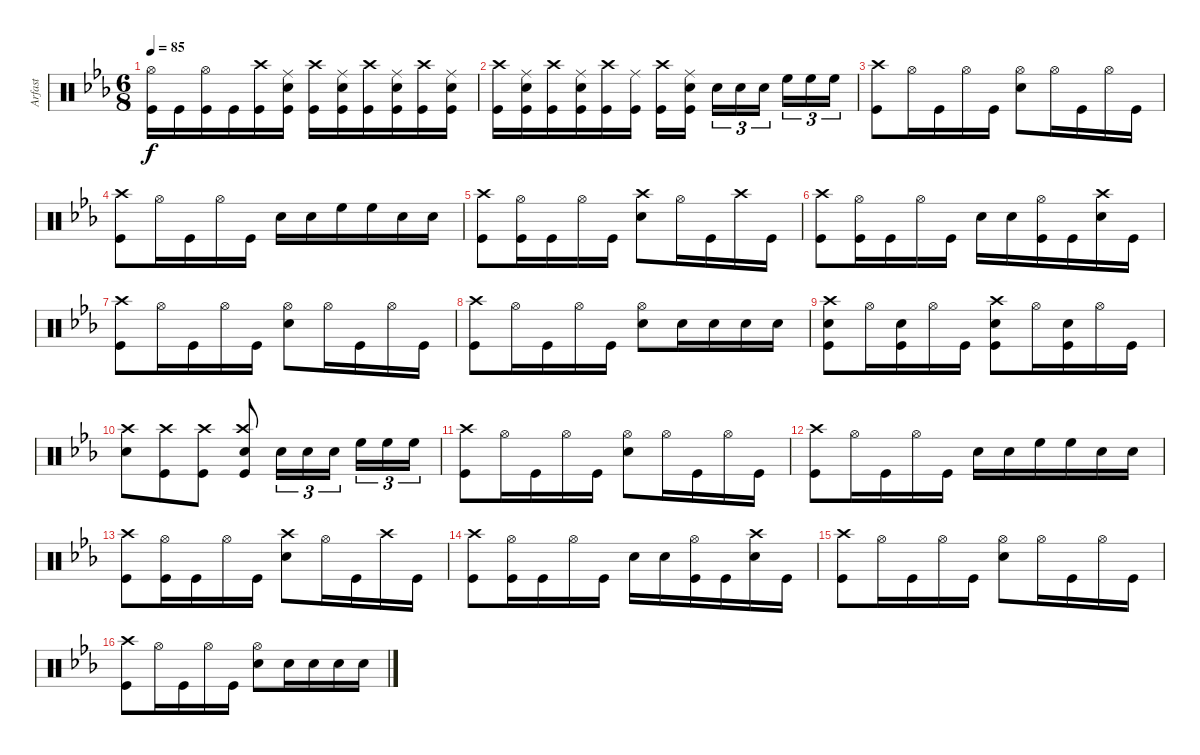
\track ("Arfast" "Arfast") {instrument percussion}
\staff {score}
\articulation defaults
\ts (6 8)
\tempo 85
\clef neutral
\ks cminor
("Hi-Hat (open)" "Kick (hit)").16{dy f} "Kick (hit)".16 ("Hi-Hat (open)" "Kick (hit)").16 "Kick (hit)".16 ("Crash high (hit)" "Kick (hit)").16 ("Ride (middle)" "Snare (hit) 2" "Kick (hit)").16 ("Crash high (hit)" "Kick (hit)").16 ("Ride (middle)" "Snare (hit) 2" "Kick (hit)").16 ("Crash high (hit)" "Kick (hit)").16 ("Ride (middle)" "Snare (hit) 2" "Kick (hit)").16 ("Crash high (hit)" "Kick (hit)").16 ("Ride (middle)" "Snare (hit) 2" "Kick (hit)").16 |
("Crash high (hit)" "Kick (hit)").16 ("Ride (middle)" "Snare (hit) 2" "Kick (hit)").16 ("Crash high (hit)" "Kick (hit)").16 ("Ride (middle)" "Snare (hit) 2" "Kick (hit)").16 ("Crash high (hit)" "Kick (hit)").16 ("Ride (middle)" "Kick (hit)").16 ("Crash high (hit)" "Kick (hit)").16 ("Ride (middle)" "Snare (hit) 2" "Kick (hit)").16{beam splitsecondary} "Snare (hit) 2".16{tu (3 2)} "Snare (hit) 2".16{tu (3 2)} "Snare (hit) 2".16{tu (3 2) beam splitsecondary} "High Floor Tom (hit)".16{tu (3 2)} "High Floor Tom (hit)".16{tu (3 2)} "High Floor Tom (hit)".16{tu (3 2)} |
("Kick (hit)" "Crash high (hit)").8 "Hi-Hat (open)".16 "Kick (hit)".16 "Hi-Hat (open)".16 "Kick (hit)".16 ("Snare (hit) 2" "Hi-Hat (open)").8 "Hi-Hat (open)".16 "Kick (hit)".16 "Hi-Hat (open)".16 "Kick (hit)".16 |
("Kick (hit)" "Crash high (hit)").8 "Hi-Hat (open)".16 "Kick (hit)".16 "Hi-Hat (open)".16 "Kick (hit)".16 "Snare (hit) 2".16 "Snare (hit) 2".16 "High Floor Tom (hit)".16 "High Floor Tom (hit)".16 "Snare (hit) 2".16 "Snare (hit) 2".16 |
("Kick (hit)" "Crash high (hit)").8 ("Kick (hit)" "Hi-Hat (open)").16 "Kick (hit)".16 "Hi-Hat (open)".16 "Kick (hit)".16 ("Snare (hit) 2" "Crash high (hit)").8 "Hi-Hat (open)".16 "Kick (hit)".16 "Crash high (hit)".16 "Kick (hit)".16 |
("Kick (hit)" "Crash high (hit)").8 ("Kick (hit)" "Hi-Hat (open)").16 "Kick (hit)".16 "Hi-Hat (open)".16 "Kick (hit)".16 "Snare (hit) 2".16 "Snare (hit) 2".16 ("Hi-Hat (open)" "Kick (hit)").16 "Kick (hit)".16 ("Crash high (hit)" "Snare (hit) 2").16 "Kick (hit)".16 |
("Kick (hit)" "Crash high (hit)").8 "Hi-Hat (open)".16 "Kick (hit)".16 "Hi-Hat (open)".16 "Kick (hit)".16 ("Snare (hit) 2" "Hi-Hat (open)").8 "Hi-Hat (open)".16 "Kick (hit)".16 "Hi-Hat (open)".16 "Kick (hit)".16 |
("Kick (hit)" "Crash high (hit)").8 "Hi-Hat (open)".16 "Kick (hit)".16 "Hi-Hat (open)".16 "Kick (hit)".16 ("Snare (hit) 2" "Hi-Hat (open)").8 "Snare (hit) 2".16 "Snare (hit) 2".16 "Snare (hit) 2".16 "Snare (hit) 2".16 |
("Kick (hit)" "Crash high (hit)" "Snare (hit) 2").8 "Hi-Hat (open)".16 ("Kick (hit)" "Snare (hit) 2").16 "Hi-Hat (open)".16 "Kick (hit)".16 ("Kick (hit)" "Crash high (hit)" "Snare (hit) 2").8 "Hi-Hat (open)".16 ("Kick (hit)" "Snare (hit) 2").16 "Hi-Hat (open)".16 "Kick (hit)".16 |
("Crash high (hit)" "Snare (hit) 2").8 ("Crash high (hit)" "Kick (hit)").8 ("Crash high (hit)" "Kick (hit)").8 ("Crash high (hit)" "Kick (hit)" "Snare (hit) 2").8 "Snare (hit) 2".16{tu (3 2)} "Snare (hit) 2".16{tu (3 2)} "Snare (hit) 2".16{tu (3 2) beam splitsecondary} "High Floor Tom (hit)".16{tu (3 2)} "High Floor Tom (hit)".16{tu (3 2)} "High Floor Tom (hit)".16{tu (3 2)} |
("Kick (hit)" "Crash high (hit)").8 "Hi-Hat (open)".16 "Kick (hit)".16 "Hi-Hat (open)".16 "Kick (hit)".16 ("Snare (hit) 2" "Hi-Hat (open)").8 "Hi-Hat (open)".16 "Kick (hit)".16 "Hi-Hat (open)".16 "Kick (hit)".16 |
("Kick (hit)" "Crash high (hit)").8 "Hi-Hat (open)".16 "Kick (hit)".16 "Hi-Hat (open)".16 "Kick (hit)".16 "Snare (hit) 2".16 "Snare (hit) 2".16 "High Floor Tom (hit)".16 "High Floor Tom (hit)".16 "Snare (hit) 2".16 "Snare (hit) 2".16 |
("Kick (hit)" "Crash high (hit)").8 ("Kick (hit)" "Hi-Hat (open)").16 "Kick (hit)".16 "Hi-Hat (open)".16 "Kick (hit)".16 ("Snare (hit) 2" "Crash high (hit)").8 "Hi-Hat (open)".16 "Kick (hit)".16 "Crash high (hit)".16 "Kick (hit)".16 |
("Kick (hit)" "Crash high (hit)").8 ("Kick (hit)" "Hi-Hat (open)").16 "Kick (hit)".16 "Hi-Hat (open)".16 "Kick (hit)".16 "Snare (hit) 2".16 "Snare (hit) 2".16 ("Hi-Hat (open)" "Kick (hit)").16 "Kick (hit)".16 ("Crash high (hit)" "Snare (hit) 2").16 "Kick (hit)".16 |
("Kick (hit)" "Crash high (hit)").8 "Hi-Hat (open)".16 "Kick (hit)".16 "Hi-Hat (open)".16 "Kick (hit)".16 ("Snare (hit) 2" "Hi-Hat (open)").8 "Hi-Hat (open)".16 "Kick (hit)".16 "Hi-Hat (open)".16 "Kick (hit)".16 |
("Kick (hit)" "Crash high (hit)").8 "Hi-Hat (open)".16 "Kick (hit)".16 "Hi-Hat (open)".16 "Kick (hit)".16 ("Snare (hit) 2" "Hi-Hat (open)").8 "Snare (hit) 2".16 "Snare (hit) 2".16 "Snare (hit) 2".16 "Snare (hit) 2".16
